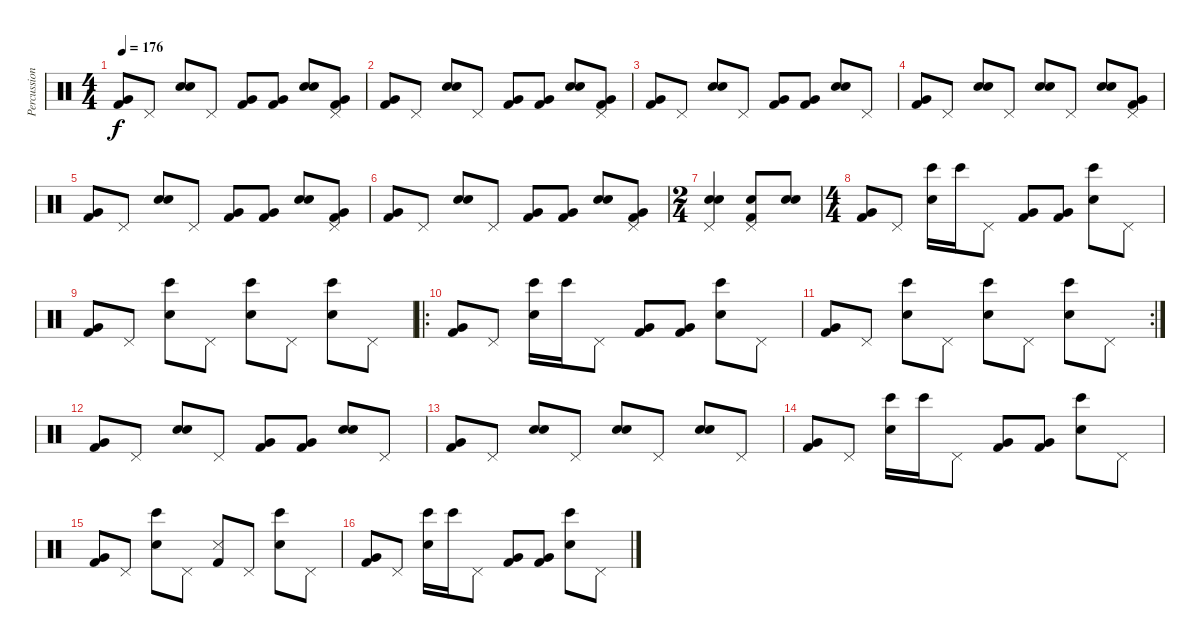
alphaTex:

\track ("Percussions" "Percussion") {instrument percussion}
\staff {score}
\articulation defaults
\ts (4 4)
\tempo 176
\clef neutral
\ks c
("Kick (hit) 2" "Very Low Tom (hit)").8{dy f} "Pedal Hi-Hat (hit)".8 ("Snare (hit) 2" "Electric Snare (hit)").8 "Pedal Hi-Hat (hit)".8 ("Kick (hit) 2" "Very Low Tom (hit)").8 ("Kick (hit) 2" "Very Low Tom (hit)").8 ("Snare (hit) 2" "Electric Snare (hit)").8 ("Pedal Hi-Hat (hit)" "Kick (hit) 2" "Very Low Tom (hit)").8 |
("Kick (hit) 2" "Very Low Tom (hit)").8 "Pedal Hi-Hat (hit)".8 ("Snare (hit) 2" "Electric Snare (hit)").8 "Pedal Hi-Hat (hit)".8 ("Kick (hit) 2" "Very Low Tom (hit)").8 ("Kick (hit) 2" "Very Low Tom (hit)").8 ("Snare (hit) 2" "Electric Snare (hit)").8 ("Pedal Hi-Hat (hit)" "Kick (hit) 2" "Very Low Tom (hit)").8 |
("Kick (hit) 2" "Very Low Tom (hit)").8 "Pedal Hi-Hat (hit)".8 ("Snare (hit) 2" "Electric Snare (hit)").8 "Pedal Hi-Hat (hit)".8 ("Kick (hit) 2" "Very Low Tom (hit)").8 ("Kick (hit) 2" "Very Low Tom (hit)").8 ("Snare (hit) 2" "Electric Snare (hit)").8 "Pedal Hi-Hat (hit)".8 |
("Kick (hit) 2" "Very Low Tom (hit)").8 "Pedal Hi-Hat (hit)".8 ("Snare (hit) 2" "Electric Snare (hit)").8 "Pedal Hi-Hat (hit)".8 ("Snare (hit) 2" "Electric Snare (hit)").8 "Pedal Hi-Hat (hit)".8 ("Snare (hit) 2" "Electric Snare (hit)").8 ("Pedal Hi-Hat (hit)" "Kick (hit) 2" "Very Low Tom (hit)").8 |
("Kick (hit) 2" "Very Low Tom (hit)").8 "Pedal Hi-Hat (hit)".8 ("Snare (hit) 2" "Electric Snare (hit)").8 "Pedal Hi-Hat (hit)".8 ("Kick (hit) 2" "Very Low Tom (hit)").8 ("Kick (hit) 2" "Very Low Tom (hit)").8 ("Snare (hit) 2" "Electric Snare (hit)").8 ("Pedal Hi-Hat (hit)" "Kick (hit) 2" "Very Low Tom (hit)").8 |
("Kick (hit) 2" "Very Low Tom (hit)").8 "Pedal Hi-Hat (hit)".8 ("Snare (hit) 2" "Electric Snare (hit)").8 "Pedal Hi-Hat (hit)".8 ("Kick (hit) 2" "Very Low Tom (hit)").8 ("Kick (hit) 2" "Very Low Tom (hit)").8 ("Snare (hit) 2" "Electric Snare (hit)").8 ("Pedal Hi-Hat (hit)" "Kick (hit) 2" "Very Low Tom (hit)").8 |
\ts (2 4)
("Pedal Hi-Hat (hit)" "Snare (hit) 2" "Electric Snare (hit)").4 ("Pedal Hi-Hat (hit)" "Kick (hit) 2" "Electric Snare (hit)").8 ("Snare (hit) 2" "Electric Snare (hit)").8 |
\ts (4 4)
("Kick (hit) 2" "Very Low Tom (hit)").8 "Pedal Hi-Hat (hit)".8 ("Snare (hit) 2" "Bongo High (hit)").16 "Bongo High (hit)".16 "Pedal Hi-Hat (hit)".8 ("Kick (hit) 2" "Very Low Tom (hit)").8 ("Kick (hit) 2" "Very Low Tom (hit)").8 ("Snare (hit) 2" "Bongo High (hit)").8 "Pedal Hi-Hat (hit)".8 |
("Kick (hit) 2" "Very Low Tom (hit)").8 "Pedal Hi-Hat (hit)".8 ("Snare (hit) 2" "Bongo High (hit)").8 "Pedal Hi-Hat (hit)".8 ("Snare (hit) 2" "Bongo High (hit)").8 "Pedal Hi-Hat (hit)".8 ("Snare (hit) 2" "Bongo High (hit)").8 "Pedal Hi-Hat (hit)".8 |
\ro
("Kick (hit) 2" "Very Low Tom (hit)").8 "Pedal Hi-Hat (hit)".8 ("Snare (hit) 2" "Bongo High (hit)").16 "Bongo High (hit)".16 "Pedal Hi-Hat (hit)".8 ("Kick (hit) 2" "Very Low Tom (hit)").8 ("Kick (hit) 2" "Very Low Tom (hit)").8 ("Snare (hit) 2" "Bongo High (hit)").8 "Pedal Hi-Hat (hit)".8 |
\rc 2
("Kick (hit) 2" "Very Low Tom (hit)").8 "Pedal Hi-Hat (hit)".8 ("Snare (hit) 2" "Bongo High (hit)").8 "Pedal Hi-Hat (hit)".8 ("Snare (hit) 2" "Bongo High (hit)").8 "Pedal Hi-Hat (hit)".8 ("Snare (hit) 2" "Bongo High (hit)").8 "Pedal Hi-Hat (hit)".8 |
("Kick (hit) 2" "Very Low Tom (hit)").8 "Pedal Hi-Hat (hit)".8 ("Snare (hit) 2" "Electric Snare (hit)").8 "Pedal Hi-Hat (hit)".8 ("Kick (hit) 2" "Very Low Tom (hit)").8 ("Kick (hit) 2" "Very Low Tom (hit)").8 ("Snare (hit) 2" "Electric Snare (hit)").8 "Pedal Hi-Hat (hit)".8 |
("Kick (hit) 2" "Very Low Tom (hit)").8 "Pedal Hi-Hat (hit)".8 ("Snare (hit) 2" "Electric Snare (hit)").8 "Pedal Hi-Hat (hit)".8 ("Snare (hit) 2" "Electric Snare (hit)").8 "Pedal Hi-Hat (hit)".8 ("Snare (hit) 2" "Electric Snare (hit)").8 "Pedal Hi-Hat (hit)".8 |
("Kick (hit) 2" "Very Low Tom (hit)").8 "Pedal Hi-Hat (hit)".8 ("Snare (hit) 2" "Bongo High (hit)").16 "Bongo High (hit)".16 "Pedal Hi-Hat (hit)".8 ("Kick (hit) 2" "Very Low Tom (hit)").8 ("Kick (hit) 2" "Very Low Tom (hit)").8 ("Snare (hit) 2" "Bongo High (hit)").8 "Pedal Hi-Hat (hit)".8 |
("Kick (hit) 2" "Very Low Tom (hit)").8 "Pedal Hi-Hat (hit)".8 ("Snare (hit) 2" "Bongo High (hit)").8 "Pedal Hi-Hat (hit)".8 ("Kick (hit) 2" "Snare (side stick) 3").8 "Pedal Hi-Hat (hit)".8 ("Snare (hit) 2" "Bongo High (hit)").8 "Pedal Hi-Hat (hit)".8 |
("Kick (hit) 2" "Very Low Tom (hit)").8 "Pedal Hi-Hat (hit)".8 ("Snare (hit) 2" "Bongo High (hit)").16 "Bongo High (hit)".16 "Pedal Hi-Hat (hit)".8 ("Kick (hit) 2" "Very Low Tom (hit)").8 ("Kick (hit) 2" "Very Low Tom (hit)").8 ("Snare (hit) 2" "Bongo High (hit)").8 "Pedal Hi-Hat (hit)".8
